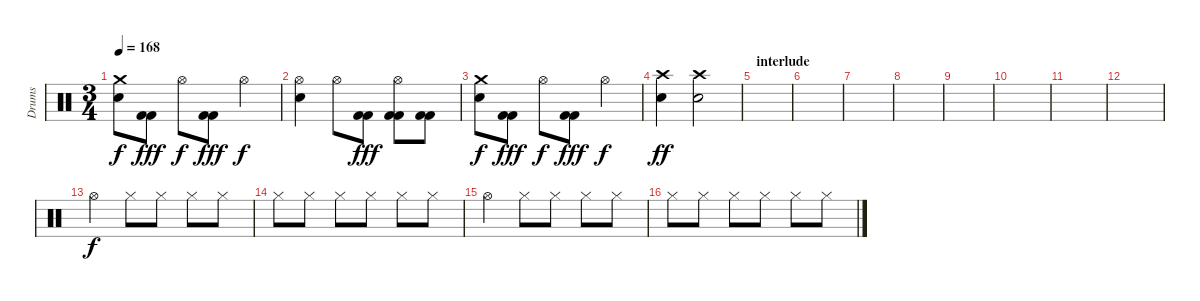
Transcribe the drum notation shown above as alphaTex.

\track ("Drums" "Drums") {instrument percussion}
\staff {score}
\articulation defaults
\ts (3 4)
\tempo 168
\clef neutral
\ks c
("Crash medium (hit)" "Electric Snare (hit)").8{dy f} ("Kick (hit) 2" "Kick (hit) 2").8{dy fff} "Hi-Hat (open)".8{dy f} ("Kick (hit) 2" "Kick (hit) 2").8{dy fff} "Hi-Hat (open)".4{dy f} |
("Electric Snare (hit)" "Hi-Hat (open)").4 "Hi-Hat (open)".8 ("Kick (hit) 2" "Kick (hit) 2").8{dy fff} ("Hi-Hat (open)" "Kick (hit) 2" "Kick (hit) 2").8 ("Kick (hit) 2" "Kick (hit) 2").8 |
("Crash medium (hit)" "Electric Snare (hit)").8{dy f} ("Kick (hit) 2" "Kick (hit) 2").8{dy fff} "Hi-Hat (open)".8{dy f} ("Kick (hit) 2" "Kick (hit) 2").8{dy fff} "Hi-Hat (open)".4{dy f} |
("Electric Snare (hit)" "Crash high (hit)").4{dy ff} ("Electric Snare (hit)" "Crash high (hit)").2 |
\section ("" "interlude")
|
|
|
|
|
|
|
|
"Hi-Hat (open)".4{dy f} "Hi-Hat (closed)".8 "Hi-Hat (closed)".8 "Hi-Hat (closed)".8 "Hi-Hat (closed)".8 |
"Hi-Hat (closed)".8 "Hi-Hat (closed)".8 "Hi-Hat (closed)".8 "Hi-Hat (closed)".8 "Hi-Hat (closed)".8 "Hi-Hat (closed)".8 |
"Hi-Hat (open)".4 "Hi-Hat (closed)".8 "Hi-Hat (closed)".8 "Hi-Hat (closed)".8 "Hi-Hat (closed)".8 |
"Hi-Hat (closed)".8 "Hi-Hat (closed)".8 "Hi-Hat (closed)".8 "Hi-Hat (closed)".8 "Hi-Hat (closed)".8 "Hi-Hat (closed)".8
